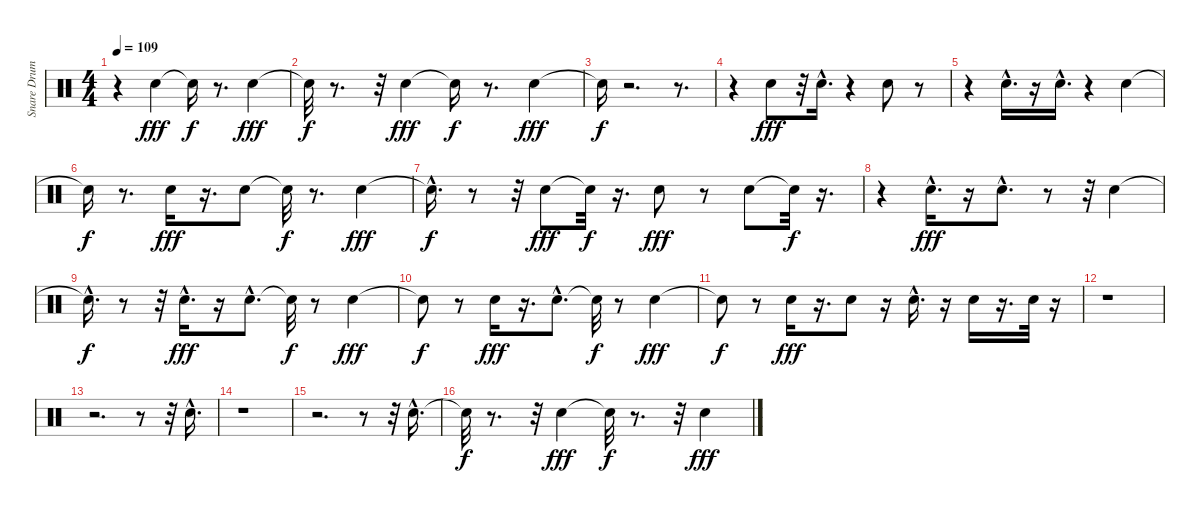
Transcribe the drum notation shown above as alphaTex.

\track ("Snare Drum      " "Snare Drum") {instrument percussion}
\staff {score}
\articulation defaults
\ts (4 4)
\tempo 109
\clef neutral
\ks c
r.4{dy fff} "Electric Snare (hit)".4 "Snare (hit)"{t}.16{dy f} r.8{d} "Electric Snare (hit)".4{dy fff} |
"Snare (hit)"{t}.32{dy f} r.8{d} r.32 "Electric Snare (hit)".4{dy fff} "Snare (hit)"{t}.16{dy f} r.8{d} "Electric Snare (hit)".4{dy fff} |
"Snare (hit)"{t}.16{dy f} r.2{d} r.8{d} |
r.4 "Electric Snare (hit)".8{dy fff} r.32 "Electric Snare (hit)"{hac}.16{d} r.4 "Electric Snare (hit)".8 r.8 |
r.4 "Electric Snare (hit)"{hac}.16{d} r.16 "Electric Snare (hit)"{hac}.16{d} r.4 "Electric Snare (hit)".4 |
"Snare (hit)"{t}.16{dy f} r.8{d} "Electric Snare (hit)".16{dy fff} r.16{d} "Electric Snare (hit)".8 "Snare (hit)"{t}.32{dy f} r.8{d} "Electric Snare (hit)".4{dy fff} |
"Snare (hit)"{hac t}.16{d dy f} r.8 r.32 "Electric Snare (hit)".8{dy fff} "Snare (hit)"{t}.32{dy f} r.16{d} "Electric Snare (hit)".8{dy fff} r.8 "Electric Snare (hit)".8 "Snare (hit)"{t}.32{dy f} r.16{d} |
r.4 "Electric Snare (hit)"{hac}.16{d dy fff} r.16 "Electric Snare (hit)"{hac}.8{d} r.8 r.32 "Electric Snare (hit)".4 |
"Snare (hit)"{hac t}.16{d dy f} r.8 r.32 "Electric Snare (hit)"{hac}.16{d dy fff} r.16 "Electric Snare (hit)"{hac}.8{d} "Snare (hit)"{t}.32{dy f} r.8 "Electric Snare (hit)".4{dy fff} |
"Snare (hit)"{t}.8{dy f} r.8 "Electric Snare (hit)".16{dy fff} r.16{d} "Electric Snare (hit)"{hac}.8{d} "Snare (hit)"{t}.32{dy f} r.8 "Electric Snare (hit)".4{dy fff} |
"Snare (hit)"{t}.8{dy f} r.8 "Electric Snare (hit)".16{dy fff} r.16{d} "Electric Snare (hit)".8 r.16 "Electric Snare (hit)"{hac}.16{d} r.16 "Electric Snare (hit)".16 r.16{d} "Electric Snare (hit)".32 r.16 |
r.1 |
r.2{d} r.8 r.32 "Electric Snare (hit)"{hac}.16{d} |
r.1 |
r.2{d} r.8 r.32 "Electric Snare (hit)"{hac}.16{d} |
"Snare (hit)"{t}.32{dy f} r.8{d} r.32 "Electric Snare (hit)".4{dy fff} "Snare (hit)"{t}.32{dy f} r.8{d} r.32 "Electric Snare (hit)".4{dy fff}
